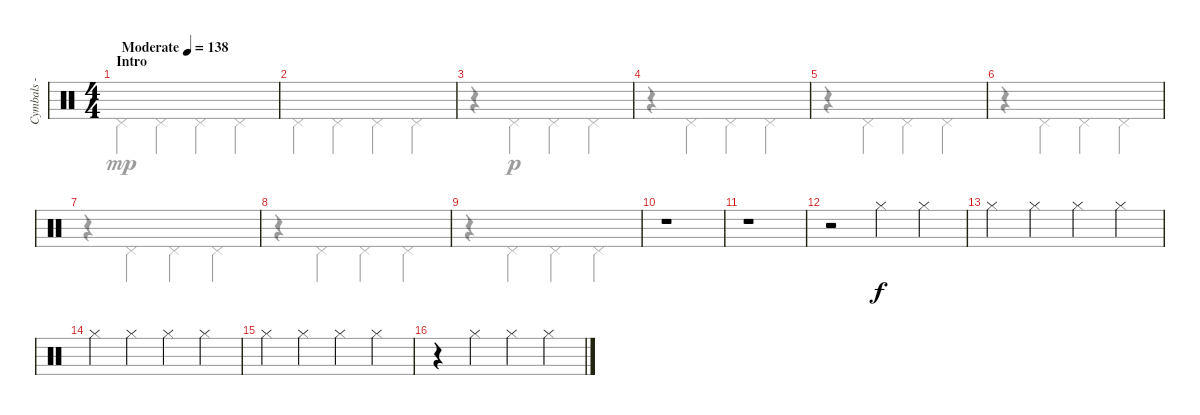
\track ("Cymbals - hi-hat" "Cymbals - ") {instrument percussion}
\staff {score}
\articulation defaults
\voice
\ts (4 4)
\section ("" "Intro")
\tempo (138 "Moderate")
\clef neutral
\ks c
|
|
|
|
|
|
|
|
|
r.1 |
r.1 |
r.2 "Hi-Hat (closed)".4 "Hi-Hat (closed)".4 |
"Hi-Hat (closed)".4 "Hi-Hat (closed)".4 "Hi-Hat (closed)".4 "Hi-Hat (closed)".4 |
"Hi-Hat (closed)".4 "Hi-Hat (closed)".4 "Hi-Hat (closed)".4 "Hi-Hat (closed)".4 |
"Hi-Hat (closed)".4 "Hi-Hat (closed)".4 "Hi-Hat (closed)".4 "Hi-Hat (closed)".4 |
r.4 "Hi-Hat (closed)".4 "Hi-Hat (closed)".4 "Hi-Hat (closed)".4
\voice
\clef neutral
\ottava regular
\simile none
\ks c "Pedal Hi-Hat (hit)".4{dy mp} "Pedal Hi-Hat (hit)".4 "Pedal Hi-Hat (hit)".4 "Pedal Hi-Hat (hit)".4
|
"Pedal Hi-Hat (hit)".4 "Pedal Hi-Hat (hit)".4 "Pedal Hi-Hat (hit)".4 "Pedal Hi-Hat (hit)".4 |
r.4 "Pedal Hi-Hat (hit)".4{dy p} "Pedal Hi-Hat (hit)".4 "Pedal Hi-Hat (hit)".4 |
r.4 "Pedal Hi-Hat (hit)".4 "Pedal Hi-Hat (hit)".4 "Pedal Hi-Hat (hit)".4 |
r.4 "Pedal Hi-Hat (hit)".4 "Pedal Hi-Hat (hit)".4 "Pedal Hi-Hat (hit)".4 |
r.4 "Pedal Hi-Hat (hit)".4 "Pedal Hi-Hat (hit)".4 "Pedal Hi-Hat (hit)".4 |
r.4 "Pedal Hi-Hat (hit)".4 "Pedal Hi-Hat (hit)".4 "Pedal Hi-Hat (hit)".4 |
r.4 "Pedal Hi-Hat (hit)".4 "Pedal Hi-Hat (hit)".4 "Pedal Hi-Hat (hit)".4 |
r.4 "Pedal Hi-Hat (hit)".4 "Pedal Hi-Hat (hit)".4 "Pedal Hi-Hat (hit)".4 |
|
|
|
|
|
|
